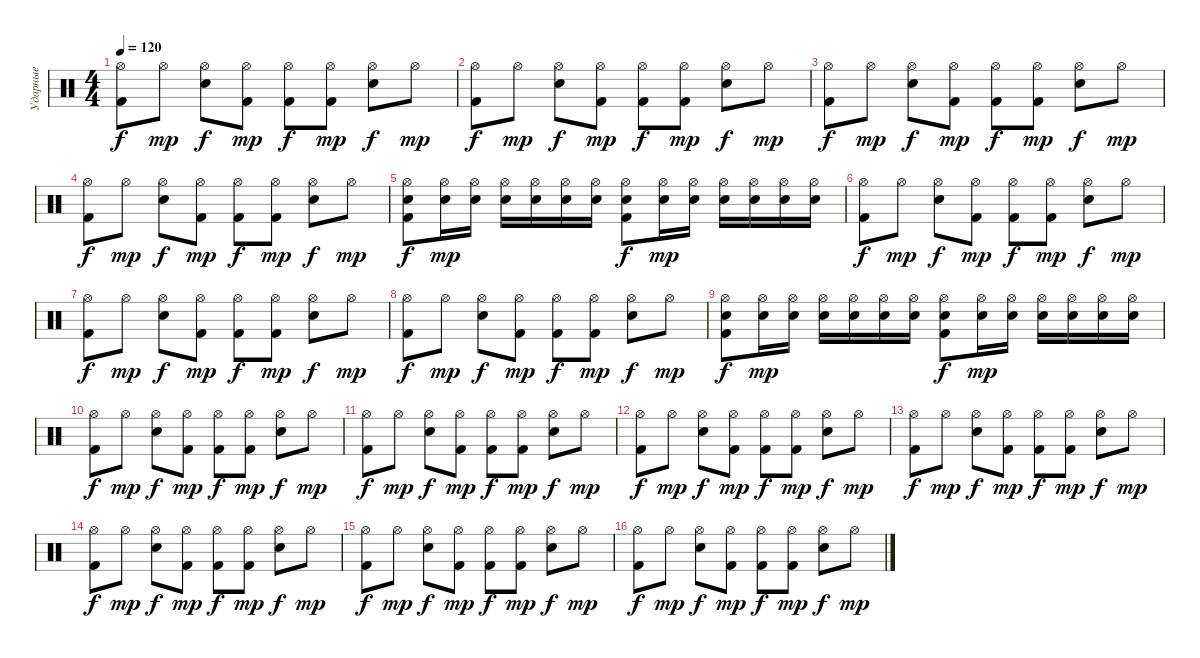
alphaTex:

\track ("Ударные" "Ударные") {instrument percussion}
\staff {score}
\articulation defaults
\ts (4 4)
\tempo 120
\clef neutral
\ks c
("Hi-Hat (open)" "Kick (hit) 2").8{dy f} "Hi-Hat (open)".8{dy mp} ("Hi-Hat (open)" "Snare (hit) 2").8{dy f} ("Hi-Hat (open)" "Kick (hit) 2").8{dy mp} ("Hi-Hat (open)" "Kick (hit) 2").8{dy f} ("Hi-Hat (open)" "Kick (hit) 2").8{dy mp} ("Hi-Hat (open)" "Snare (hit) 2").8{dy f} "Hi-Hat (open)".8{dy mp} |
("Hi-Hat (open)" "Kick (hit) 2").8{dy f} "Hi-Hat (open)".8{dy mp} ("Hi-Hat (open)" "Snare (hit) 2").8{dy f} ("Hi-Hat (open)" "Kick (hit) 2").8{dy mp} ("Hi-Hat (open)" "Kick (hit) 2").8{dy f} ("Hi-Hat (open)" "Kick (hit) 2").8{dy mp} ("Hi-Hat (open)" "Snare (hit) 2").8{dy f} "Hi-Hat (open)".8{dy mp} |
("Hi-Hat (open)" "Kick (hit) 2").8{dy f} "Hi-Hat (open)".8{dy mp} ("Hi-Hat (open)" "Snare (hit) 2").8{dy f} ("Hi-Hat (open)" "Kick (hit) 2").8{dy mp} ("Hi-Hat (open)" "Kick (hit) 2").8{dy f} ("Hi-Hat (open)" "Kick (hit) 2").8{dy mp} ("Hi-Hat (open)" "Snare (hit) 2").8{dy f} "Hi-Hat (open)".8{dy mp} |
("Hi-Hat (open)" "Kick (hit) 2").8{dy f} "Hi-Hat (open)".8{dy mp} ("Hi-Hat (open)" "Snare (hit) 2").8{dy f} ("Hi-Hat (open)" "Kick (hit) 2").8{dy mp} ("Hi-Hat (open)" "Kick (hit) 2").8{dy f} ("Hi-Hat (open)" "Kick (hit) 2").8{dy mp} ("Hi-Hat (open)" "Snare (hit) 2").8{dy f} "Hi-Hat (open)".8{dy mp} |
("Hi-Hat (open)" "Electric Snare (hit)" "Kick (hit) 2").8{dy f} ("Hi-Hat (open)" "Electric Snare (hit)").16{dy mp} ("Hi-Hat (open)" "Electric Snare (hit)").16 ("Hi-Hat (open)" "Electric Snare (hit)").16 ("Hi-Hat (open)" "Electric Snare (hit)").16 ("Hi-Hat (open)" "Electric Snare (hit)").16 ("Hi-Hat (open)" "Electric Snare (hit)").16 ("Hi-Hat (open)" "Electric Snare (hit)" "Kick (hit) 2").8{dy f} ("Hi-Hat (open)" "Electric Snare (hit)").16{dy mp} ("Hi-Hat (open)" "Electric Snare (hit)").16 ("Hi-Hat (open)" "Electric Snare (hit)").16 ("Hi-Hat (open)" "Electric Snare (hit)").16 ("Hi-Hat (open)" "Electric Snare (hit)").16 ("Hi-Hat (open)" "Electric Snare (hit)").16 |
("Hi-Hat (open)" "Kick (hit) 2").8{dy f} "Hi-Hat (open)".8{dy mp} ("Hi-Hat (open)" "Snare (hit) 2").8{dy f} ("Hi-Hat (open)" "Kick (hit) 2").8{dy mp} ("Hi-Hat (open)" "Kick (hit) 2").8{dy f} ("Hi-Hat (open)" "Kick (hit) 2").8{dy mp} ("Hi-Hat (open)" "Snare (hit) 2").8{dy f} "Hi-Hat (open)".8{dy mp} |
("Hi-Hat (open)" "Kick (hit) 2").8{dy f} "Hi-Hat (open)".8{dy mp} ("Hi-Hat (open)" "Snare (hit) 2").8{dy f} ("Hi-Hat (open)" "Kick (hit) 2").8{dy mp} ("Hi-Hat (open)" "Kick (hit) 2").8{dy f} ("Hi-Hat (open)" "Kick (hit) 2").8{dy mp} ("Hi-Hat (open)" "Snare (hit) 2").8{dy f} "Hi-Hat (open)".8{dy mp} |
("Hi-Hat (open)" "Kick (hit) 2").8{dy f} "Hi-Hat (open)".8{dy mp} ("Hi-Hat (open)" "Snare (hit) 2").8{dy f} ("Hi-Hat (open)" "Kick (hit) 2").8{dy mp} ("Hi-Hat (open)" "Kick (hit) 2").8{dy f} ("Hi-Hat (open)" "Kick (hit) 2").8{dy mp} ("Hi-Hat (open)" "Snare (hit) 2").8{dy f} "Hi-Hat (open)".8{dy mp} |
("Hi-Hat (open)" "Electric Snare (hit)" "Kick (hit) 2").8{dy f} ("Hi-Hat (open)" "Electric Snare (hit)").16{dy mp} ("Hi-Hat (open)" "Electric Snare (hit)").16 ("Hi-Hat (open)" "Electric Snare (hit)").16 ("Hi-Hat (open)" "Electric Snare (hit)").16 ("Hi-Hat (open)" "Electric Snare (hit)").16 ("Hi-Hat (open)" "Electric Snare (hit)").16 ("Hi-Hat (open)" "Electric Snare (hit)" "Kick (hit) 2").8{dy f} ("Hi-Hat (open)" "Electric Snare (hit)").16{dy mp} ("Hi-Hat (open)" "Electric Snare (hit)").16 ("Hi-Hat (open)" "Electric Snare (hit)").16 ("Hi-Hat (open)" "Electric Snare (hit)").16 ("Hi-Hat (open)" "Electric Snare (hit)").16 ("Hi-Hat (open)" "Electric Snare (hit)").16 |
("Hi-Hat (open)" "Kick (hit) 2").8{dy f} "Hi-Hat (open)".8{dy mp} ("Hi-Hat (open)" "Snare (hit) 2").8{dy f} ("Hi-Hat (open)" "Kick (hit) 2").8{dy mp} ("Hi-Hat (open)" "Kick (hit) 2").8{dy f} ("Hi-Hat (open)" "Kick (hit) 2").8{dy mp} ("Hi-Hat (open)" "Snare (hit) 2").8{dy f} "Hi-Hat (open)".8{dy mp} |
("Hi-Hat (open)" "Kick (hit) 2").8{dy f} "Hi-Hat (open)".8{dy mp} ("Hi-Hat (open)" "Snare (hit) 2").8{dy f} ("Hi-Hat (open)" "Kick (hit) 2").8{dy mp} ("Hi-Hat (open)" "Kick (hit) 2").8{dy f} ("Hi-Hat (open)" "Kick (hit) 2").8{dy mp} ("Hi-Hat (open)" "Snare (hit) 2").8{dy f} "Hi-Hat (open)".8{dy mp} |
("Hi-Hat (open)" "Kick (hit) 2").8{dy f} "Hi-Hat (open)".8{dy mp} ("Hi-Hat (open)" "Snare (hit) 2").8{dy f} ("Hi-Hat (open)" "Kick (hit) 2").8{dy mp} ("Hi-Hat (open)" "Kick (hit) 2").8{dy f} ("Hi-Hat (open)" "Kick (hit) 2").8{dy mp} ("Hi-Hat (open)" "Snare (hit) 2").8{dy f} "Hi-Hat (open)".8{dy mp} |
("Hi-Hat (open)" "Kick (hit) 2").8{dy f} "Hi-Hat (open)".8{dy mp} ("Hi-Hat (open)" "Snare (hit) 2").8{dy f} ("Hi-Hat (open)" "Kick (hit) 2").8{dy mp} ("Hi-Hat (open)" "Kick (hit) 2").8{dy f} ("Hi-Hat (open)" "Kick (hit) 2").8{dy mp} ("Hi-Hat (open)" "Snare (hit) 2").8{dy f} "Hi-Hat (open)".8{dy mp} |
("Hi-Hat (open)" "Kick (hit) 2").8{dy f} "Hi-Hat (open)".8{dy mp} ("Hi-Hat (open)" "Snare (hit) 2").8{dy f} ("Hi-Hat (open)" "Kick (hit) 2").8{dy mp} ("Hi-Hat (open)" "Kick (hit) 2").8{dy f} ("Hi-Hat (open)" "Kick (hit) 2").8{dy mp} ("Hi-Hat (open)" "Snare (hit) 2").8{dy f} "Hi-Hat (open)".8{dy mp} |
("Hi-Hat (open)" "Kick (hit) 2").8{dy f} "Hi-Hat (open)".8{dy mp} ("Hi-Hat (open)" "Snare (hit) 2").8{dy f} ("Hi-Hat (open)" "Kick (hit) 2").8{dy mp} ("Hi-Hat (open)" "Kick (hit) 2").8{dy f} ("Hi-Hat (open)" "Kick (hit) 2").8{dy mp} ("Hi-Hat (open)" "Snare (hit) 2").8{dy f} "Hi-Hat (open)".8{dy mp} |
("Hi-Hat (open)" "Kick (hit) 2").8{dy f} "Hi-Hat (open)".8{dy mp} ("Hi-Hat (open)" "Snare (hit) 2").8{dy f} ("Hi-Hat (open)" "Kick (hit) 2").8{dy mp} ("Hi-Hat (open)" "Kick (hit) 2").8{dy f} ("Hi-Hat (open)" "Kick (hit) 2").8{dy mp} ("Hi-Hat (open)" "Snare (hit) 2").8{dy f} "Hi-Hat (open)".8{dy mp}
